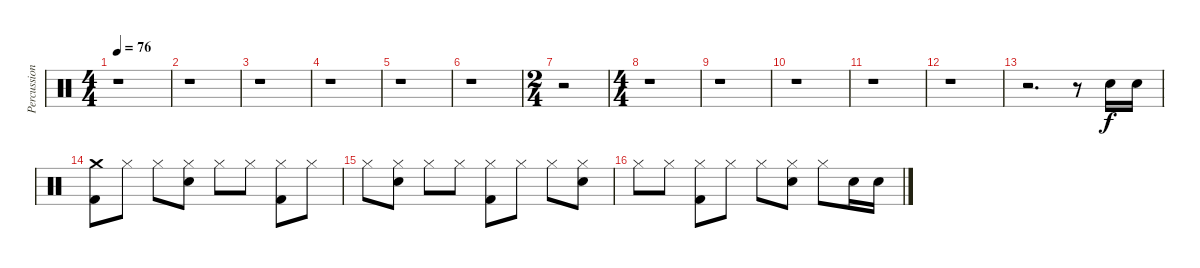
\track ("Percussions" "Percussion") {instrument percussion}
\staff {score}
\articulation defaults
\ts (4 4)
\tempo 76
\clef neutral
\ks c
r.1{dy f} |
r.1 |
r.1 |
r.1 |
r.1 |
r.1 |
\ts (2 4)
r.2 |
\ts (4 4)
r.1 |
r.1 |
r.1 |
r.1 |
r.1 |
r.2{d} r.8 "Electric Snare (hit)".16 "Electric Snare (hit)".16 |
("Crash medium (hit)" "Kick (hit) 2").8 "Hi-Hat (closed)".8 "Hi-Hat (closed)".8 ("Hi-Hat (closed)" "Electric Snare (hit)").8 "Hi-Hat (closed)".8 "Hi-Hat (closed)".8 ("Hi-Hat (closed)" "Kick (hit) 2").8 "Hi-Hat (closed)".8 |
"Hi-Hat (closed)".8 ("Hi-Hat (closed)" "Electric Snare (hit)").8 "Hi-Hat (closed)".8 "Hi-Hat (closed)".8 ("Hi-Hat (closed)" "Kick (hit) 2").8 "Hi-Hat (closed)".8 "Hi-Hat (closed)".8 ("Hi-Hat (closed)" "Electric Snare (hit)").8 |
"Hi-Hat (closed)".8 "Hi-Hat (closed)".8 ("Hi-Hat (closed)" "Kick (hit) 2").8 "Hi-Hat (closed)".8 "Hi-Hat (closed)".8 ("Hi-Hat (closed)" "Electric Snare (hit)").8 "Hi-Hat (closed)".8 "Electric Snare (hit)".16 "Electric Snare (hit)".16
